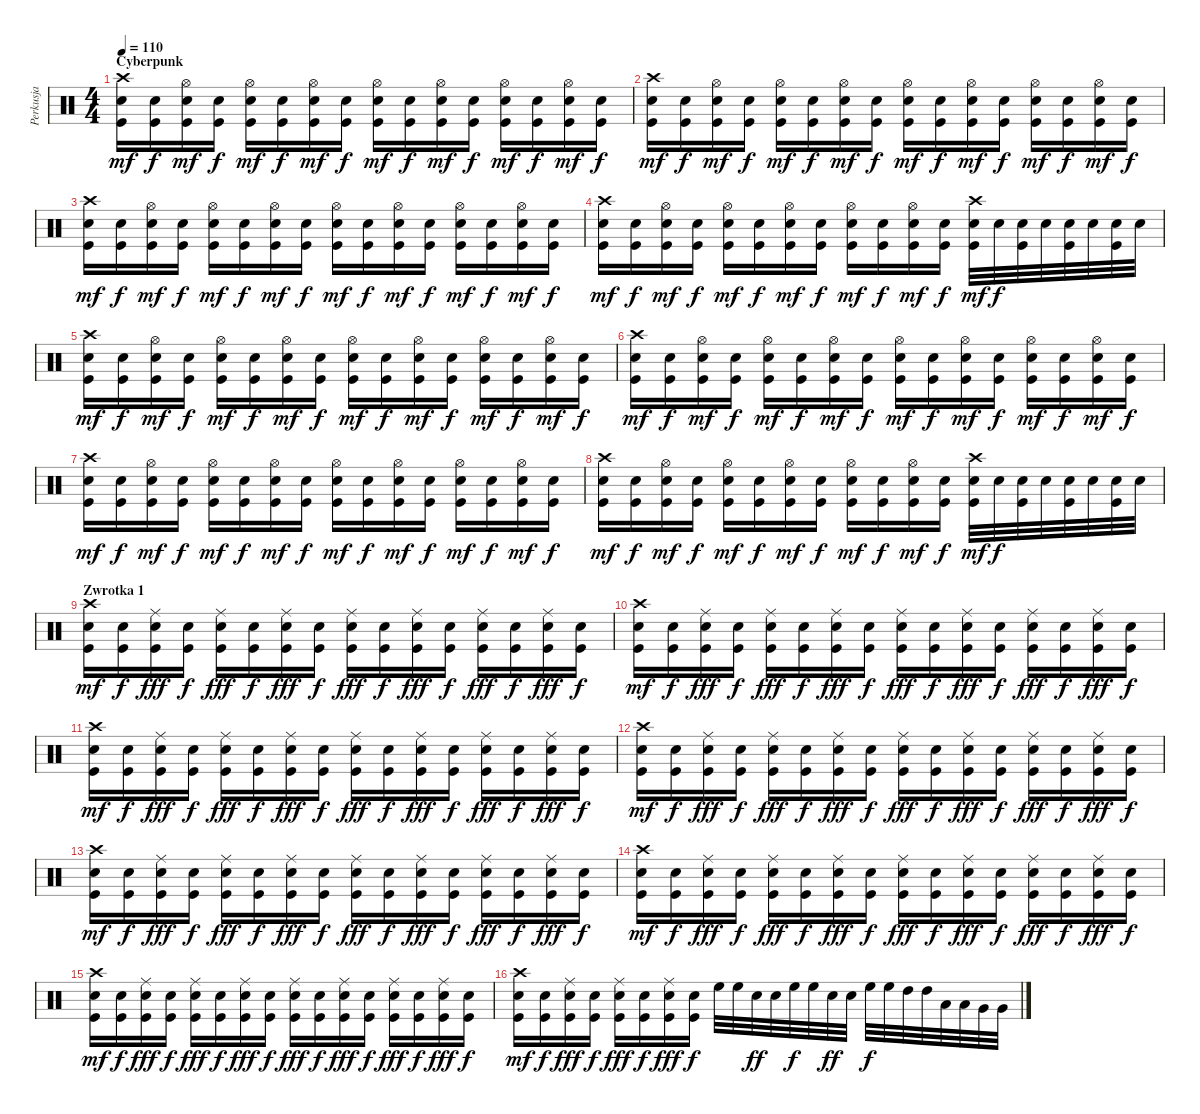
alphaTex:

\track ("Perkusja" "Perkusja") {instrument percussion}
\staff {score}
\articulation defaults
\ts (4 4)
\section ("" "Cyberpunk")
\tempo 110
\clef neutral
\ks c
("Crash high (hit)" "Snare (hit) 2" "Kick (hit)").16{dy mf} ("Snare (hit) 2" "Kick (hit)").16{dy f} ("Hi-Hat (open)" "Snare (hit) 2" "Kick (hit)").16{dy mf} ("Snare (hit) 2" "Kick (hit)").16{dy f} ("Hi-Hat (open)" "Snare (hit) 2" "Kick (hit)").16{dy mf} ("Snare (hit) 2" "Kick (hit)").16{dy f} ("Hi-Hat (open)" "Snare (hit) 2" "Kick (hit)").16{dy mf} ("Snare (hit) 2" "Kick (hit)").16{dy f} ("Hi-Hat (open)" "Snare (hit) 2" "Kick (hit)").16{dy mf} ("Snare (hit) 2" "Kick (hit)").16{dy f} ("Hi-Hat (open)" "Snare (hit) 2" "Kick (hit)").16{dy mf} ("Snare (hit) 2" "Kick (hit)").16{dy f} ("Hi-Hat (open)" "Snare (hit) 2" "Kick (hit)").16{dy mf} ("Snare (hit) 2" "Kick (hit)").16{dy f} ("Hi-Hat (open)" "Snare (hit) 2" "Kick (hit)").16{dy mf} ("Snare (hit) 2" "Kick (hit)").16{dy f} |
("Crash high (hit)" "Snare (hit) 2" "Kick (hit)").16{dy mf} ("Snare (hit) 2" "Kick (hit)").16{dy f} ("Hi-Hat (open)" "Snare (hit) 2" "Kick (hit)").16{dy mf} ("Snare (hit) 2" "Kick (hit)").16{dy f} ("Hi-Hat (open)" "Snare (hit) 2" "Kick (hit)").16{dy mf} ("Snare (hit) 2" "Kick (hit)").16{dy f} ("Hi-Hat (open)" "Snare (hit) 2" "Kick (hit)").16{dy mf} ("Snare (hit) 2" "Kick (hit)").16{dy f} ("Hi-Hat (open)" "Snare (hit) 2" "Kick (hit)").16{dy mf} ("Snare (hit) 2" "Kick (hit)").16{dy f} ("Hi-Hat (open)" "Snare (hit) 2" "Kick (hit)").16{dy mf} ("Snare (hit) 2" "Kick (hit)").16{dy f} ("Hi-Hat (open)" "Snare (hit) 2" "Kick (hit)").16{dy mf} ("Snare (hit) 2" "Kick (hit)").16{dy f} ("Hi-Hat (open)" "Snare (hit) 2" "Kick (hit)").16{dy mf} ("Snare (hit) 2" "Kick (hit)").16{dy f} |
("Crash high (hit)" "Snare (hit) 2" "Kick (hit)").16{dy mf} ("Snare (hit) 2" "Kick (hit)").16{dy f} ("Hi-Hat (open)" "Snare (hit) 2" "Kick (hit)").16{dy mf} ("Snare (hit) 2" "Kick (hit)").16{dy f} ("Hi-Hat (open)" "Snare (hit) 2" "Kick (hit)").16{dy mf} ("Snare (hit) 2" "Kick (hit)").16{dy f} ("Hi-Hat (open)" "Snare (hit) 2" "Kick (hit)").16{dy mf} ("Snare (hit) 2" "Kick (hit)").16{dy f} ("Hi-Hat (open)" "Snare (hit) 2" "Kick (hit)").16{dy mf} ("Snare (hit) 2" "Kick (hit)").16{dy f} ("Hi-Hat (open)" "Snare (hit) 2" "Kick (hit)").16{dy mf} ("Snare (hit) 2" "Kick (hit)").16{dy f} ("Hi-Hat (open)" "Snare (hit) 2" "Kick (hit)").16{dy mf} ("Snare (hit) 2" "Kick (hit)").16{dy f} ("Hi-Hat (open)" "Snare (hit) 2" "Kick (hit)").16{dy mf} ("Snare (hit) 2" "Kick (hit)").16{dy f} |
("Crash high (hit)" "Snare (hit) 2" "Kick (hit)").16{dy mf} ("Snare (hit) 2" "Kick (hit)").16{dy f} ("Hi-Hat (open)" "Snare (hit) 2" "Kick (hit)").16{dy mf} ("Snare (hit) 2" "Kick (hit)").16{dy f} ("Hi-Hat (open)" "Snare (hit) 2" "Kick (hit)").16{dy mf} ("Snare (hit) 2" "Kick (hit)").16{dy f} ("Hi-Hat (open)" "Snare (hit) 2" "Kick (hit)").16{dy mf} ("Snare (hit) 2" "Kick (hit)").16{dy f} ("Hi-Hat (open)" "Snare (hit) 2" "Kick (hit)").16{dy mf} ("Snare (hit) 2" "Kick (hit)").16{dy f} ("Hi-Hat (open)" "Snare (hit) 2" "Kick (hit)").16{dy mf} ("Snare (hit) 2" "Kick (hit)").16{dy f} ("Crash high (hit)" "Snare (hit) 2" "Kick (hit)").32{dy mf} "Snare (hit) 2".32{dy f} ("Snare (hit) 2" "Kick (hit)").32 "Snare (hit) 2".32 ("Snare (hit) 2" "Kick (hit)").32 "Snare (hit) 2".32 ("Snare (hit) 2" "Kick (hit)").32 "Snare (hit) 2".32 |
("Crash high (hit)" "Snare (hit) 2" "Kick (hit)").16{dy mf} ("Snare (hit) 2" "Kick (hit)").16{dy f} ("Hi-Hat (open)" "Snare (hit) 2" "Kick (hit)").16{dy mf} ("Snare (hit) 2" "Kick (hit)").16{dy f} ("Hi-Hat (open)" "Snare (hit) 2" "Kick (hit)").16{dy mf} ("Snare (hit) 2" "Kick (hit)").16{dy f} ("Hi-Hat (open)" "Snare (hit) 2" "Kick (hit)").16{dy mf} ("Snare (hit) 2" "Kick (hit)").16{dy f} ("Hi-Hat (open)" "Snare (hit) 2" "Kick (hit)").16{dy mf} ("Snare (hit) 2" "Kick (hit)").16{dy f} ("Hi-Hat (open)" "Snare (hit) 2" "Kick (hit)").16{dy mf} ("Snare (hit) 2" "Kick (hit)").16{dy f} ("Hi-Hat (open)" "Snare (hit) 2" "Kick (hit)").16{dy mf} ("Snare (hit) 2" "Kick (hit)").16{dy f} ("Hi-Hat (open)" "Snare (hit) 2" "Kick (hit)").16{dy mf} ("Snare (hit) 2" "Kick (hit)").16{dy f} |
("Crash high (hit)" "Snare (hit) 2" "Kick (hit)").16{dy mf} ("Snare (hit) 2" "Kick (hit)").16{dy f} ("Hi-Hat (open)" "Snare (hit) 2" "Kick (hit)").16{dy mf} ("Snare (hit) 2" "Kick (hit)").16{dy f} ("Hi-Hat (open)" "Snare (hit) 2" "Kick (hit)").16{dy mf} ("Snare (hit) 2" "Kick (hit)").16{dy f} ("Hi-Hat (open)" "Snare (hit) 2" "Kick (hit)").16{dy mf} ("Snare (hit) 2" "Kick (hit)").16{dy f} ("Hi-Hat (open)" "Snare (hit) 2" "Kick (hit)").16{dy mf} ("Snare (hit) 2" "Kick (hit)").16{dy f} ("Hi-Hat (open)" "Snare (hit) 2" "Kick (hit)").16{dy mf} ("Snare (hit) 2" "Kick (hit)").16{dy f} ("Hi-Hat (open)" "Snare (hit) 2" "Kick (hit)").16{dy mf} ("Snare (hit) 2" "Kick (hit)").16{dy f} ("Hi-Hat (open)" "Snare (hit) 2" "Kick (hit)").16{dy mf} ("Snare (hit) 2" "Kick (hit)").16{dy f} |
("Crash high (hit)" "Snare (hit) 2" "Kick (hit)").16{dy mf} ("Snare (hit) 2" "Kick (hit)").16{dy f} ("Hi-Hat (open)" "Snare (hit) 2" "Kick (hit)").16{dy mf} ("Snare (hit) 2" "Kick (hit)").16{dy f} ("Hi-Hat (open)" "Snare (hit) 2" "Kick (hit)").16{dy mf} ("Snare (hit) 2" "Kick (hit)").16{dy f} ("Hi-Hat (open)" "Snare (hit) 2" "Kick (hit)").16{dy mf} ("Snare (hit) 2" "Kick (hit)").16{dy f} ("Hi-Hat (open)" "Snare (hit) 2" "Kick (hit)").16{dy mf} ("Snare (hit) 2" "Kick (hit)").16{dy f} ("Hi-Hat (open)" "Snare (hit) 2" "Kick (hit)").16{dy mf} ("Snare (hit) 2" "Kick (hit)").16{dy f} ("Hi-Hat (open)" "Snare (hit) 2" "Kick (hit)").16{dy mf} ("Snare (hit) 2" "Kick (hit)").16{dy f} ("Hi-Hat (open)" "Snare (hit) 2" "Kick (hit)").16{dy mf} ("Snare (hit) 2" "Kick (hit)").16{dy f} |
("Crash high (hit)" "Snare (hit) 2" "Kick (hit)").16{dy mf} ("Snare (hit) 2" "Kick (hit)").16{dy f} ("Hi-Hat (open)" "Snare (hit) 2" "Kick (hit)").16{dy mf} ("Snare (hit) 2" "Kick (hit)").16{dy f} ("Hi-Hat (open)" "Snare (hit) 2" "Kick (hit)").16{dy mf} ("Snare (hit) 2" "Kick (hit)").16{dy f} ("Hi-Hat (open)" "Snare (hit) 2" "Kick (hit)").16{dy mf} ("Snare (hit) 2" "Kick (hit)").16{dy f} ("Hi-Hat (open)" "Snare (hit) 2" "Kick (hit)").16{dy mf} ("Snare (hit) 2" "Kick (hit)").16{dy f} ("Hi-Hat (open)" "Snare (hit) 2" "Kick (hit)").16{dy mf} ("Snare (hit) 2" "Kick (hit)").16{dy f} ("Crash high (hit)" "Snare (hit) 2" "Kick (hit)").32{dy mf} "Snare (hit) 2".32{dy f} ("Snare (hit) 2" "Kick (hit)").32 "Snare (hit) 2".32 ("Snare (hit) 2" "Kick (hit)").32 "Snare (hit) 2".32 ("Snare (hit) 2" "Kick (hit)").32 "Snare (hit) 2".32 |
\section ("" "Zwrotka 1")
("Crash high (hit)" "Snare (hit) 2" "Kick (hit)").16{dy mf} ("Snare (hit) 2" "Kick (hit)").16{dy f} ("Ride (middle)" "Snare (hit) 2" "Kick (hit)").16{dy fff} ("Snare (hit) 2" "Kick (hit)").16{dy f} ("Ride (middle)" "Snare (hit) 2" "Kick (hit)").16{dy fff} ("Snare (hit) 2" "Kick (hit)").16{dy f} ("Ride (middle)" "Snare (hit) 2" "Kick (hit)").16{dy fff} ("Snare (hit) 2" "Kick (hit)").16{dy f} ("Ride (middle)" "Snare (hit) 2" "Kick (hit)").16{dy fff} ("Snare (hit) 2" "Kick (hit)").16{dy f} ("Ride (middle)" "Snare (hit) 2" "Kick (hit)").16{dy fff} ("Snare (hit) 2" "Kick (hit)").16{dy f} ("Ride (middle)" "Snare (hit) 2" "Kick (hit)").16{dy fff} ("Snare (hit) 2" "Kick (hit)").16{dy f} ("Ride (middle)" "Snare (hit) 2" "Kick (hit)").16{dy fff} ("Snare (hit) 2" "Kick (hit)").16{dy f} |
("Crash high (hit)" "Snare (hit) 2" "Kick (hit)").16{dy mf} ("Snare (hit) 2" "Kick (hit)").16{dy f} ("Ride (middle)" "Snare (hit) 2" "Kick (hit)").16{dy fff} ("Snare (hit) 2" "Kick (hit)").16{dy f} ("Ride (middle)" "Snare (hit) 2" "Kick (hit)").16{dy fff} ("Snare (hit) 2" "Kick (hit)").16{dy f} ("Ride (middle)" "Snare (hit) 2" "Kick (hit)").16{dy fff} ("Snare (hit) 2" "Kick (hit)").16{dy f} ("Ride (middle)" "Snare (hit) 2" "Kick (hit)").16{dy fff} ("Snare (hit) 2" "Kick (hit)").16{dy f} ("Ride (middle)" "Snare (hit) 2" "Kick (hit)").16{dy fff} ("Snare (hit) 2" "Kick (hit)").16{dy f} ("Ride (middle)" "Snare (hit) 2" "Kick (hit)").16{dy fff} ("Snare (hit) 2" "Kick (hit)").16{dy f} ("Ride (middle)" "Snare (hit) 2" "Kick (hit)").16{dy fff} ("Snare (hit) 2" "Kick (hit)").16{dy f} |
("Crash high (hit)" "Snare (hit) 2" "Kick (hit)").16{dy mf} ("Snare (hit) 2" "Kick (hit)").16{dy f} ("Ride (middle)" "Snare (hit) 2" "Kick (hit)").16{dy fff} ("Snare (hit) 2" "Kick (hit)").16{dy f} ("Ride (middle)" "Snare (hit) 2" "Kick (hit)").16{dy fff} ("Snare (hit) 2" "Kick (hit)").16{dy f} ("Ride (middle)" "Snare (hit) 2" "Kick (hit)").16{dy fff} ("Snare (hit) 2" "Kick (hit)").16{dy f} ("Ride (middle)" "Snare (hit) 2" "Kick (hit)").16{dy fff} ("Snare (hit) 2" "Kick (hit)").16{dy f} ("Ride (middle)" "Snare (hit) 2" "Kick (hit)").16{dy fff} ("Snare (hit) 2" "Kick (hit)").16{dy f} ("Ride (middle)" "Snare (hit) 2" "Kick (hit)").16{dy fff} ("Snare (hit) 2" "Kick (hit)").16{dy f} ("Ride (middle)" "Snare (hit) 2" "Kick (hit)").16{dy fff} ("Snare (hit) 2" "Kick (hit)").16{dy f} |
("Crash high (hit)" "Snare (hit) 2" "Kick (hit)").16{dy mf} ("Snare (hit) 2" "Kick (hit)").16{dy f} ("Ride (middle)" "Snare (hit) 2" "Kick (hit)").16{dy fff} ("Snare (hit) 2" "Kick (hit)").16{dy f} ("Ride (middle)" "Snare (hit) 2" "Kick (hit)").16{dy fff} ("Snare (hit) 2" "Kick (hit)").16{dy f} ("Ride (middle)" "Snare (hit) 2" "Kick (hit)").16{dy fff} ("Snare (hit) 2" "Kick (hit)").16{dy f} ("Ride (middle)" "Snare (hit) 2" "Kick (hit)").16{dy fff} ("Snare (hit) 2" "Kick (hit)").16{dy f} ("Ride (middle)" "Snare (hit) 2" "Kick (hit)").16{dy fff} ("Snare (hit) 2" "Kick (hit)").16{dy f} ("Ride (middle)" "Snare (hit) 2" "Kick (hit)").16{dy fff} ("Snare (hit) 2" "Kick (hit)").16{dy f} ("Ride (middle)" "Snare (hit) 2" "Kick (hit)").16{dy fff} ("Snare (hit) 2" "Kick (hit)").16{dy f} |
("Crash high (hit)" "Snare (hit) 2" "Kick (hit)").16{dy mf} ("Snare (hit) 2" "Kick (hit)").16{dy f} ("Ride (middle)" "Snare (hit) 2" "Kick (hit)").16{dy fff} ("Snare (hit) 2" "Kick (hit)").16{dy f} ("Ride (middle)" "Snare (hit) 2" "Kick (hit)").16{dy fff} ("Snare (hit) 2" "Kick (hit)").16{dy f} ("Ride (middle)" "Snare (hit) 2" "Kick (hit)").16{dy fff} ("Snare (hit) 2" "Kick (hit)").16{dy f} ("Ride (middle)" "Snare (hit) 2" "Kick (hit)").16{dy fff} ("Snare (hit) 2" "Kick (hit)").16{dy f} ("Ride (middle)" "Snare (hit) 2" "Kick (hit)").16{dy fff} ("Snare (hit) 2" "Kick (hit)").16{dy f} ("Ride (middle)" "Snare (hit) 2" "Kick (hit)").16{dy fff} ("Snare (hit) 2" "Kick (hit)").16{dy f} ("Ride (middle)" "Snare (hit) 2" "Kick (hit)").16{dy fff} ("Snare (hit) 2" "Kick (hit)").16{dy f} |
("Crash high (hit)" "Snare (hit) 2" "Kick (hit)").16{dy mf} ("Snare (hit) 2" "Kick (hit)").16{dy f} ("Ride (middle)" "Snare (hit) 2" "Kick (hit)").16{dy fff} ("Snare (hit) 2" "Kick (hit)").16{dy f} ("Ride (middle)" "Snare (hit) 2" "Kick (hit)").16{dy fff} ("Snare (hit) 2" "Kick (hit)").16{dy f} ("Ride (middle)" "Snare (hit) 2" "Kick (hit)").16{dy fff} ("Snare (hit) 2" "Kick (hit)").16{dy f} ("Ride (middle)" "Snare (hit) 2" "Kick (hit)").16{dy fff} ("Snare (hit) 2" "Kick (hit)").16{dy f} ("Ride (middle)" "Snare (hit) 2" "Kick (hit)").16{dy fff} ("Snare (hit) 2" "Kick (hit)").16{dy f} ("Ride (middle)" "Snare (hit) 2" "Kick (hit)").16{dy fff} ("Snare (hit) 2" "Kick (hit)").16{dy f} ("Ride (middle)" "Snare (hit) 2" "Kick (hit)").16{dy fff} ("Snare (hit) 2" "Kick (hit)").16{dy f} |
("Crash high (hit)" "Snare (hit) 2" "Kick (hit)").16{dy mf} ("Snare (hit) 2" "Kick (hit)").16{dy f} ("Ride (middle)" "Snare (hit) 2" "Kick (hit)").16{dy fff} ("Snare (hit) 2" "Kick (hit)").16{dy f} ("Ride (middle)" "Snare (hit) 2" "Kick (hit)").16{dy fff} ("Snare (hit) 2" "Kick (hit)").16{dy f} ("Ride (middle)" "Snare (hit) 2" "Kick (hit)").16{dy fff} ("Snare (hit) 2" "Kick (hit)").16{dy f} ("Ride (middle)" "Snare (hit) 2" "Kick (hit)").16{dy fff} ("Snare (hit) 2" "Kick (hit)").16{dy f} ("Ride (middle)" "Snare (hit) 2" "Kick (hit)").16{dy fff} ("Snare (hit) 2" "Kick (hit)").16{dy f} ("Ride (middle)" "Snare (hit) 2" "Kick (hit)").16{dy fff} ("Snare (hit) 2" "Kick (hit)").16{dy f} ("Ride (middle)" "Snare (hit) 2" "Kick (hit)").16{dy fff} ("Snare (hit) 2" "Kick (hit)").16{dy f} |
("Crash high (hit)" "Snare (hit) 2" "Kick (hit)").16{dy mf} ("Snare (hit) 2" "Kick (hit)").16{dy f} ("Ride (middle)" "Snare (hit) 2" "Kick (hit)").16{dy fff} ("Snare (hit) 2" "Kick (hit)").16{dy f} ("Ride (middle)" "Snare (hit) 2" "Kick (hit)").16{dy fff} ("Snare (hit) 2" "Kick (hit)").16{dy f} ("Ride (middle)" "Snare (hit) 2" "Kick (hit)").16{dy fff} ("Snare (hit) 2" "Kick (hit)").16{dy f} "High Floor Tom (hit)".32 "High Floor Tom (hit)".32 "Snare (hit) 2".32{dy ff} "Snare (hit) 2".32 "High Floor Tom (hit)".32{dy f} "High Floor Tom (hit)".32 "Snare (hit) 2".32{dy ff} "Snare (hit) 2".32 "High Floor Tom (hit)".32{dy f} "High Floor Tom (hit)".32 "High Tom (hit)".32 "High Tom (hit)".32 "Low Tom (hit)".32 "Low Tom (hit)".32 "Very Low Tom (hit)".32 "Very Low Tom (hit)".32
